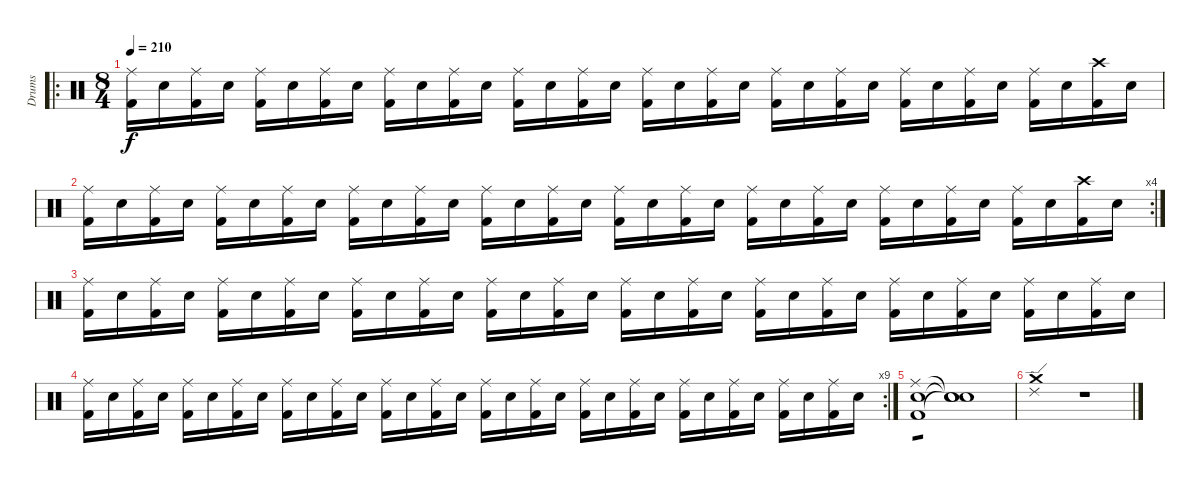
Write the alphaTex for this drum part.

\track ("Drums" "Drums") {instrument percussion}
\staff {score}
\articulation defaults
\ro
\ts (8 4)
\tempo 210
\clef neutral
\ks c
("Ride (middle)" "Kick (hit) 2").16{dy f} "Electric Snare (hit)".16 ("Ride (middle)" "Kick (hit) 2").16 "Electric Snare (hit)".16 ("Ride (middle)" "Kick (hit) 2").16 "Electric Snare (hit)".16 ("Ride (middle)" "Kick (hit) 2").16 "Electric Snare (hit)".16 ("Ride (middle)" "Kick (hit) 2").16 "Electric Snare (hit)".16 ("Ride (middle)" "Kick (hit) 2").16 "Electric Snare (hit)".16 ("Ride (middle)" "Kick (hit) 2").16 "Electric Snare (hit)".16 ("Ride (middle)" "Kick (hit) 2").16 "Electric Snare (hit)".16 ("Ride (middle)" "Kick (hit) 2").16 "Electric Snare (hit)".16 ("Ride (middle)" "Kick (hit) 2").16 "Electric Snare (hit)".16 ("Ride (middle)" "Kick (hit) 2").16 "Electric Snare (hit)".16 ("Ride (middle)" "Kick (hit) 2").16 "Electric Snare (hit)".16 ("Ride (middle)" "Kick (hit) 2").16 "Electric Snare (hit)".16 ("Ride (middle)" "Kick (hit) 2").16 "Electric Snare (hit)".16 ("Ride (middle)" "Kick (hit) 2").16 "Electric Snare (hit)".16 ("Crash high (hit)" "Kick (hit) 2").16 "Electric Snare (hit)".16 |
\rc 4
("Ride (middle)" "Kick (hit) 2").16 "Electric Snare (hit)".16 ("Ride (middle)" "Kick (hit) 2").16 "Electric Snare (hit)".16 ("Ride (middle)" "Kick (hit) 2").16 "Electric Snare (hit)".16 ("Ride (middle)" "Kick (hit) 2").16 "Electric Snare (hit)".16 ("Ride (middle)" "Kick (hit) 2").16 "Electric Snare (hit)".16 ("Ride (middle)" "Kick (hit) 2").16 "Electric Snare (hit)".16 ("Ride (middle)" "Kick (hit) 2").16 "Electric Snare (hit)".16 ("Ride (middle)" "Kick (hit) 2").16 "Electric Snare (hit)".16 ("Ride (middle)" "Kick (hit) 2").16 "Electric Snare (hit)".16 ("Ride (middle)" "Kick (hit) 2").16 "Electric Snare (hit)".16 ("Ride (middle)" "Kick (hit) 2").16 "Electric Snare (hit)".16 ("Ride (middle)" "Kick (hit) 2").16 "Electric Snare (hit)".16 ("Ride (middle)" "Kick (hit) 2").16 "Electric Snare (hit)".16 ("Ride (middle)" "Kick (hit) 2").16 "Electric Snare (hit)".16 ("Ride (middle)" "Kick (hit) 2").16 "Electric Snare (hit)".16 ("Crash high (hit)" "Kick (hit) 2").16 "Electric Snare (hit)".16 |
("Ride (middle)" "Kick (hit) 2").16 "Electric Snare (hit)".16 ("Ride (middle)" "Kick (hit) 2").16 "Electric Snare (hit)".16 ("Ride (middle)" "Kick (hit) 2").16 "Electric Snare (hit)".16 ("Ride (middle)" "Kick (hit) 2").16 "Electric Snare (hit)".16 ("Ride (middle)" "Kick (hit) 2").16 "Electric Snare (hit)".16 ("Ride (middle)" "Kick (hit) 2").16 "Electric Snare (hit)".16 ("Ride (middle)" "Kick (hit) 2").16 "Electric Snare (hit)".16 ("Ride (middle)" "Kick (hit) 2").16 "Electric Snare (hit)".16 ("Ride (middle)" "Kick (hit) 2").16 "Electric Snare (hit)".16 ("Ride (middle)" "Kick (hit) 2").16 "Electric Snare (hit)".16 ("Ride (middle)" "Kick (hit) 2").16 "Electric Snare (hit)".16 ("Ride (middle)" "Kick (hit) 2").16 "Electric Snare (hit)".16 ("Ride (middle)" "Kick (hit) 2").16 "Electric Snare (hit)".16 ("Ride (middle)" "Kick (hit) 2").16 "Electric Snare (hit)".16 ("Ride (middle)" "Kick (hit) 2").16 "Electric Snare (hit)".16 ("Ride (middle)" "Kick (hit) 2").16 "Electric Snare (hit)".16 |
\rc 9
("Ride (middle)" "Kick (hit) 2").16 "Electric Snare (hit)".16 ("Ride (middle)" "Kick (hit) 2").16 "Electric Snare (hit)".16 ("Ride (middle)" "Kick (hit) 2").16 "Electric Snare (hit)".16 ("Ride (middle)" "Kick (hit) 2").16 "Electric Snare (hit)".16 ("Ride (middle)" "Kick (hit) 2").16 "Electric Snare (hit)".16 ("Ride (middle)" "Kick (hit) 2").16 "Electric Snare (hit)".16 ("Ride (middle)" "Kick (hit) 2").16 "Electric Snare (hit)".16 ("Ride (middle)" "Kick (hit) 2").16 "Electric Snare (hit)".16 ("Ride (middle)" "Kick (hit) 2").16 "Electric Snare (hit)".16 ("Ride (middle)" "Kick (hit) 2").16 "Electric Snare (hit)".16 ("Ride (middle)" "Kick (hit) 2").16 "Electric Snare (hit)".16 ("Ride (middle)" "Kick (hit) 2").16 "Electric Snare (hit)".16 ("Ride (middle)" "Kick (hit) 2").16 "Electric Snare (hit)".16 ("Ride (middle)" "Kick (hit) 2").16 "Electric Snare (hit)".16 ("Ride (middle)" "Kick (hit) 2").16 "Electric Snare (hit)".16 ("Ride (middle)" "Kick (hit) 2").16 "Electric Snare (hit)".16 |
("Ride (middle)" "Electric Snare (hit)" "Kick (hit) 2").1{tp 1} ("Snare (hit)"{t} "Snare (hit)"{t} "Snare (hit)"{t}).1 |
("Crash medium (hit)" "Ride (edge) 2").1 r.1
